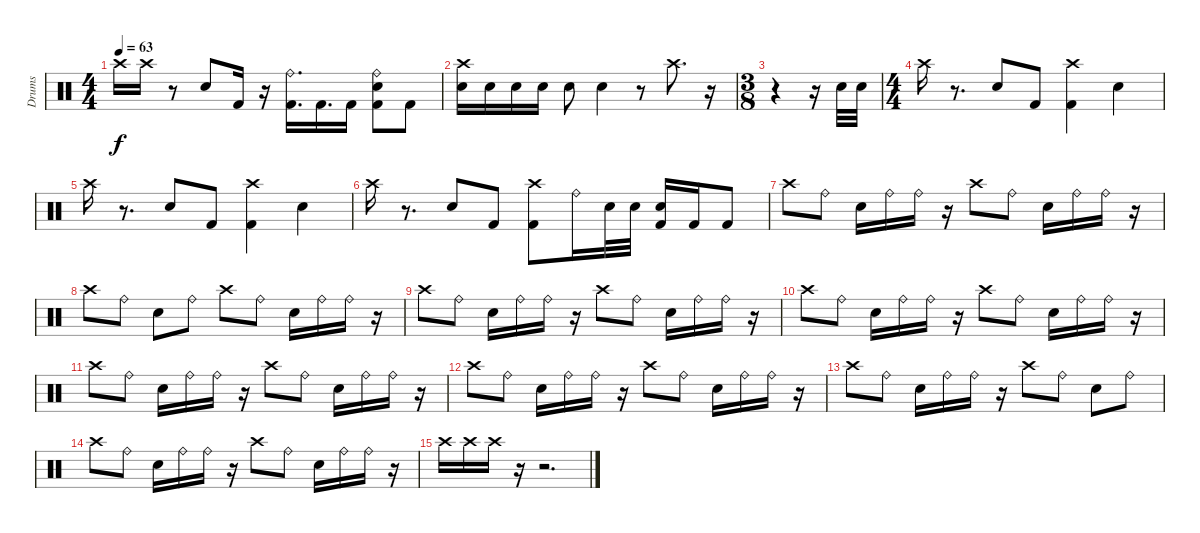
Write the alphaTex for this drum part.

\track ("Drums" "Drums") {instrument percussion}
\staff {score}
\articulation defaults
\ts (4 4)
\tempo 63
\clef neutral
\ks c "Crash high (hit)".16{dy f} "Crash high (hit)".16
r.8 "Electric Snare (hit)".8 "Kick (hit) 2".16 r.16 ("Kick (hit) 2" "Ride (bell)").16{d} "Kick (hit) 2".16{d} "Kick (hit) 2".16 ("Kick (hit) 2" "Ride (bell)" "Electric Snare (hit)").8 "Kick (hit) 2".8 |
("Electric Snare (hit)" "Crash high (hit)").16 "Electric Snare (hit)".16 "Electric Snare (hit)".16 "Electric Snare (hit)".16 "Electric Snare (hit)".8 "Electric Snare (hit)".4 r.8 "Crash high (hit)".8{d} r.16 |
\ts (3 8)
r.4 r.16 "Electric Snare (hit)".32 "Electric Snare (hit)".32 |
\ts (4 4)
"Crash high (hit)".16 r.8{d} "Electric Snare (hit)".8 "Kick (hit) 2".8 ("Kick (hit) 2" "Crash high (hit)").4 "Electric Snare (hit)".4 |
"Crash high (hit)".16 r.8{d} "Electric Snare (hit)".8 "Kick (hit) 2".8 ("Kick (hit) 2" "Crash high (hit)").4 "Electric Snare (hit)".4 |
"Crash high (hit)".16 r.8{d} "Electric Snare (hit)".8 "Kick (hit) 2".8 ("Kick (hit) 2" "Crash high (hit)").8 "Ride (bell)".16 "Electric Snare (hit)".32 "Electric Snare (hit)".32 ("Kick (hit) 2" "Electric Snare (hit)").16 "Kick (hit) 2".16 "Kick (hit) 2".8 |
"Crash high (hit)".8 "Ride (bell)".8 "Electric Snare (hit)".16 "Ride (bell)".16 "Ride (bell)".16 r.16 "Crash high (hit)".8 "Ride (bell)".8 "Electric Snare (hit)".16 "Ride (bell)".16 "Ride (bell)".16 r.16 |
"Crash high (hit)".8 "Ride (bell)".8 "Electric Snare (hit)".8 "Ride (bell)".8 "Crash high (hit)".8 "Ride (bell)".8 "Electric Snare (hit)".16 "Ride (bell)".16 "Ride (bell)".16 r.16 |
"Crash high (hit)".8 "Ride (bell)".8 "Electric Snare (hit)".16 "Ride (bell)".16 "Ride (bell)".16 r.16 "Crash high (hit)".8 "Ride (bell)".8 "Electric Snare (hit)".16 "Ride (bell)".16 "Ride (bell)".16 r.16 |
"Crash high (hit)".8 "Ride (bell)".8 "Electric Snare (hit)".16 "Ride (bell)".16 "Ride (bell)".16 r.16 "Crash high (hit)".8 "Ride (bell)".8 "Electric Snare (hit)".16 "Ride (bell)".16 "Ride (bell)".16 r.16 |
"Crash high (hit)".8 "Ride (bell)".8 "Electric Snare (hit)".16 "Ride (bell)".16 "Ride (bell)".16 r.16 "Crash high (hit)".8 "Ride (bell)".8 "Electric Snare (hit)".16 "Ride (bell)".16 "Ride (bell)".16 r.16 |
"Crash high (hit)".8 "Ride (bell)".8 "Electric Snare (hit)".16 "Ride (bell)".16 "Ride (bell)".16 r.16 "Crash high (hit)".8 "Ride (bell)".8 "Electric Snare (hit)".16 "Ride (bell)".16 "Ride (bell)".16 r.16 |
"Crash high (hit)".8 "Ride (bell)".8 "Electric Snare (hit)".16 "Ride (bell)".16 "Ride (bell)".16 r.16 "Crash high (hit)".8 "Ride (bell)".8 "Electric Snare (hit)".8 "Ride (bell)".8 |
"Crash high (hit)".8 "Ride (bell)".8 "Electric Snare (hit)".16 "Ride (bell)".16 "Ride (bell)".16 r.16 "Crash high (hit)".8 "Ride (bell)".8 "Electric Snare (hit)".16 "Ride (bell)".16 "Ride (bell)".16 r.16 |
"Crash high (hit)".16 "Crash high (hit)".16 "Crash high (hit)".16 r.16 r.2{d}
